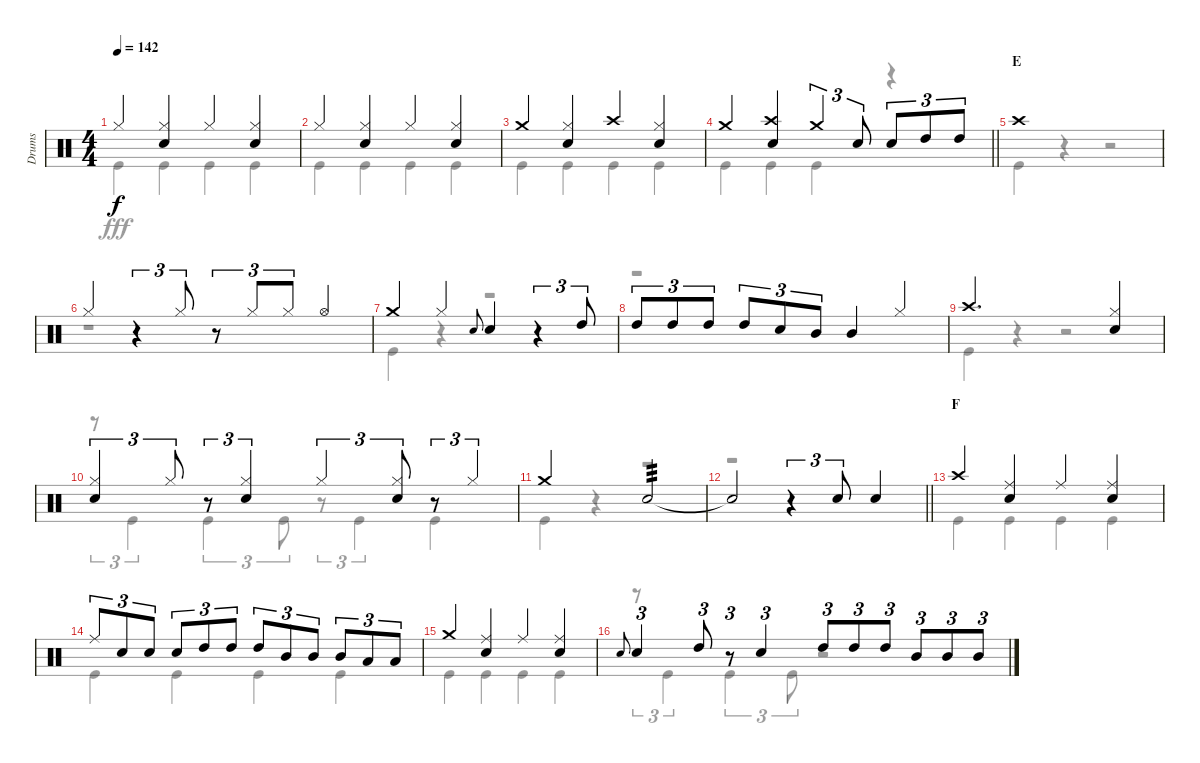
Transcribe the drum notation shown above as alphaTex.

\track ("Drums" "Drums") {instrument percussion}
\staff {score}
\articulation defaults
\voice
\ts (4 4)
\tempo 142
\clef neutral
\ks c "Hi-Hat (closed)".4{dy f}
("Hi-Hat (closed)" "Snare (hit) 2").4 "Hi-Hat (closed)".4 ("Hi-Hat (closed)" "Snare (hit) 2").4 |
"Hi-Hat (closed)".4 ("Hi-Hat (closed)" "Snare (hit) 2").4 "Hi-Hat (closed)".4 ("Hi-Hat (closed)" "Snare (hit) 2").4 |
"Crash medium (hit)".4 ("Hi-Hat (closed)" "Snare (hit) 2").4 "Crash high (hit)".4 ("Hi-Hat (closed)" "Snare (hit) 2").4 |
\barLineRight lightlight "Crash medium (hit)".4
("Crash high (hit)" "Snare (hit) 2").4 "Crash medium (hit)".4{tu (3 2)} "Snare (hit) 2".8{tu (3 2)} "Snare (hit) 2".8{tu (3 2)} "High Tom (hit)".8{tu (3 2)} "High Tom (hit)".8{tu (3 2)} |
\section ("" "E")
"Crash high (hit)".1 |
"Hi-Hat (closed)".4 r.4{tu (3 2)} "Hi-Hat (closed)".8{tu (3 2)} r.8{tu (3 2)} "Hi-Hat (closed)".8{tu (3 2)} "Hi-Hat (closed)".8{tu (3 2)} "Hi-Hat (open)".4 |
"Crash medium (hit)".4 "Hi-Hat (closed)".4 "Snare (hit) 2".8{gr onbeat} "Snare (hit) 2".4 r.4{tu (3 2)} "High Tom (hit)".8{tu (3 2)} |
"High Tom (hit)".8{tu (3 2)} "High Tom (hit)".8{tu (3 2)} "High Tom (hit)".8{tu (3 2)} "High Tom (hit)".8{tu (3 2)} "Snare (hit) 2".8{tu (3 2)} "Mid Tom (hit)".8{tu (3 2)} "Mid Tom (hit)".4 "Hi-Hat (closed)".4 |
"Crash high (hit)".2{d} ("Hi-Hat (closed)" "Snare (hit) 2").4 |
("Hi-Hat (closed)" "Snare (hit) 2").4{tu (3 2)} "Hi-Hat (closed)".8{tu (3 2)} r.8{tu (3 2)} ("Hi-Hat (closed)" "Snare (hit) 2").4{tu (3 2)} "Hi-Hat (closed)".4{tu (3 2)} ("Hi-Hat (closed)" "Snare (hit) 2").8{tu (3 2)} r.8{tu (3 2)} "Hi-Hat (closed)".4{tu (3 2)} |
"Crash medium (hit)".2 "Snare (hit) 2".2{tp 3} |
\barLineRight lightlight "Snare (hit)"{t}.2
r.4{tu (3 2)} "Snare (hit) 2".8{tu (3 2)} "Snare (hit) 2".4 |
\section ("" "F")
"Crash high (hit)".4 ("Ride (middle)" "Snare (hit) 2").4 "Ride (middle)".4 ("Ride (middle)" "Snare (hit) 2").4 |
"Ride (middle)".8{tu (3 2)} "Snare (hit) 2".8{tu (3 2)} "Snare (hit) 2".8{tu (3 2)} "Snare (hit) 2".8{tu (3 2)} "High Tom (hit)".8{tu (3 2)} "High Tom (hit)".8{tu (3 2)} "High Tom (hit)".8{tu (3 2)} "Mid Tom (hit)".8{tu (3 2)} "Mid Tom (hit)".8{tu (3 2)} "Mid Tom (hit)".8{tu (3 2)} "Low Tom (hit)".8{tu (3 2)} "Low Tom (hit)".8{tu (3 2)} |
"Crash medium (hit)".4 ("Ride (middle)" "Snare (hit) 2").4 "Ride (middle)".4 ("Ride (middle)" "Snare (hit) 2").4 |
"Snare (hit) 2".8{gr onbeat} "Snare (hit) 2".4{tu (3 2)} "High Tom (hit)".8{tu (3 2)} r.8{tu (3 2)} "Snare (hit) 2".4{tu (3 2)} "High Tom (hit)".8{tu (3 2)} "High Tom (hit)".8{tu (3 2)} "High Tom (hit)".8{tu (3 2)} "Mid Tom (hit)".8{tu (3 2)} "Mid Tom (hit)".8{tu (3 2)} "Mid Tom (hit)".8{tu (3 2)}
\voice
\clef neutral
\ottava regular
\simile none
\ks c "Kick (hit)".4{dy fff} "Kick (hit)".4 "Kick (hit)".4 "Kick (hit)".4
|
"Kick (hit)".4 "Kick (hit)".4 "Kick (hit)".4 "Kick (hit)".4 |
"Kick (hit)".4 "Kick (hit)".4 "Kick (hit)".4 "Kick (hit)".4 |
\barLineRight lightlight "Kick (hit)".4 "Kick (hit)".4 "Kick (hit)".4
r.4 |
"Kick (hit)".4 r.4 r.2 |
r.1 |
"Kick (hit)".4 r.4 r.2 |
r.1 |
"Kick (hit)".4 r.4 r.2 |
r.8{tu (3 2)} "Kick (hit)".4{tu (3 2)} "Kick (hit)".4{tu (3 2)} "Kick (hit)".8{tu (3 2)} r.8{tu (3 2)} "Kick (hit)".4{tu (3 2)} "Kick (hit)".4 |
"Kick (hit)".4 r.4 r.2 |
\barLineRight lightlight
r.1 |
"Kick (hit)".4 "Kick (hit)".4 "Kick (hit)".4 "Kick (hit)".4 |
"Kick (hit)".4 "Kick (hit)".4 "Kick (hit)".4 "Kick (hit)".4 |
"Kick (hit)".4 "Kick (hit)".4 "Kick (hit)".4 "Kick (hit)".4 |
r.8{tu (3 2)} "Kick (hit)".4{tu (3 2)} "Kick (hit)".4{tu (3 2)} "Kick (hit)".8{tu (3 2)} r.2
